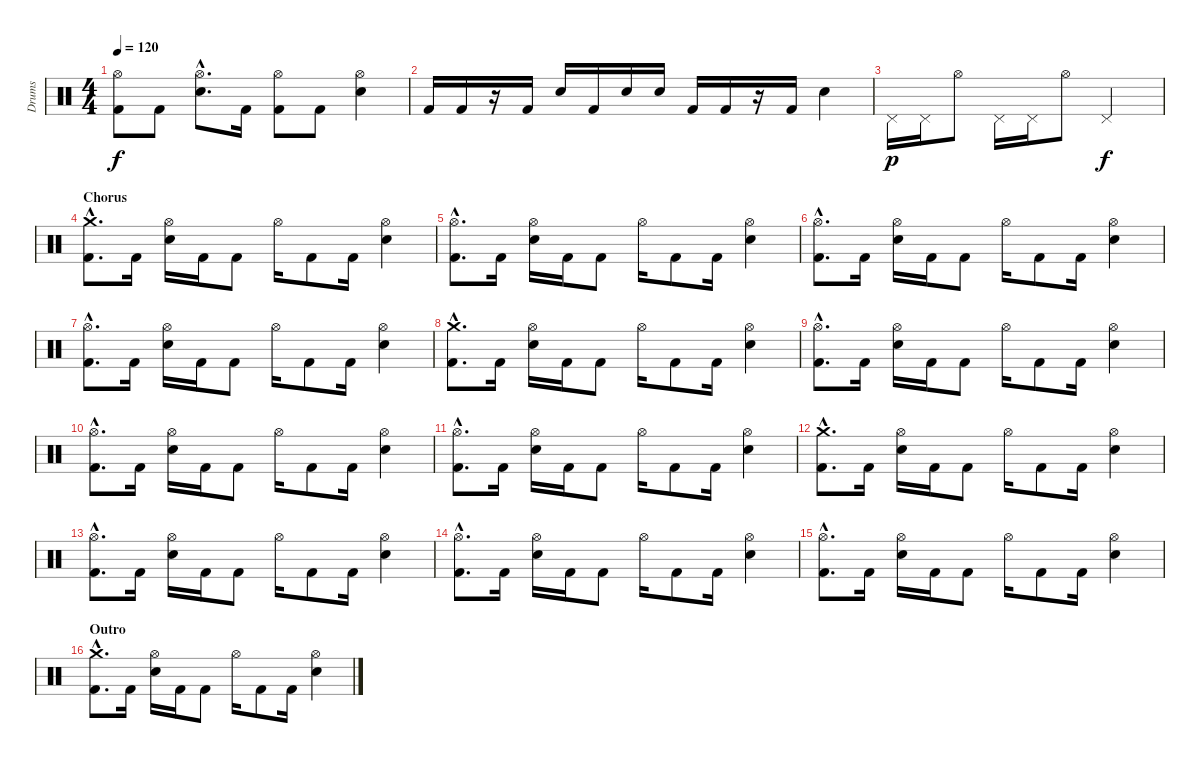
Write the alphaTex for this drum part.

\track ("Drums" "Drums") {instrument percussion}
\staff {score}
\articulation defaults
\ts (4 4)
\tempo 120
\clef neutral
\ks c
("Hi-Hat (open)" "Kick (hit) 2").8{dy f} "Kick (hit) 2".8 ("Hi-Hat (open)"{hac} "Electric Snare (hit)"{hac}).8{d} "Kick (hit) 2".16 ("Hi-Hat (open)" "Kick (hit) 2").8 "Kick (hit) 2".8 ("Hi-Hat (open)" "Electric Snare (hit)").4 |
"Kick (hit) 2".16 "Kick (hit) 2".16 r.16 "Kick (hit) 2".16 "Electric Snare (hit)".16 "Kick (hit) 2".16 "Electric Snare (hit)".16 "Electric Snare (hit)".16 "Kick (hit) 2".16 "Kick (hit) 2".16 r.16 "Kick (hit) 2".16 "Electric Snare (hit)".4 |
"Pedal Hi-Hat (hit)".16{dy p} "Pedal Hi-Hat (hit)".16 "Hi-Hat (open)".8 "Pedal Hi-Hat (hit)".16 "Pedal Hi-Hat (hit)".16 "Hi-Hat (open)".8 "Pedal Hi-Hat (hit)".2{dy f} |
\section ("" "Chorus")
("Crash medium (hit)"{hac} "Kick (hit) 2"{hac}).8{d} "Kick (hit) 2".16 ("Hi-Hat (open)" "Electric Snare (hit)").16 "Kick (hit) 2".16 "Kick (hit) 2".8 "Hi-Hat (open)".16 "Kick (hit) 2".8 "Kick (hit) 2".16 ("Hi-Hat (open)" "Electric Snare (hit)").4 |
("Hi-Hat (open)"{hac} "Kick (hit) 2"{hac}).8{d} "Kick (hit) 2".16 ("Hi-Hat (open)" "Electric Snare (hit)").16 "Kick (hit) 2".16 "Kick (hit) 2".8 "Hi-Hat (open)".16 "Kick (hit) 2".8 "Kick (hit) 2".16 ("Hi-Hat (open)" "Electric Snare (hit)").4 |
("Hi-Hat (open)"{hac} "Kick (hit) 2"{hac}).8{d} "Kick (hit) 2".16 ("Hi-Hat (open)" "Electric Snare (hit)").16 "Kick (hit) 2".16 "Kick (hit) 2".8 "Hi-Hat (open)".16 "Kick (hit) 2".8 "Kick (hit) 2".16 ("Hi-Hat (open)" "Electric Snare (hit)").4 |
("Hi-Hat (open)"{hac} "Kick (hit) 2"{hac}).8{d} "Kick (hit) 2".16 ("Hi-Hat (open)" "Electric Snare (hit)").16 "Kick (hit) 2".16 "Kick (hit) 2".8 "Hi-Hat (open)".16 "Kick (hit) 2".8 "Kick (hit) 2".16 ("Hi-Hat (open)" "Electric Snare (hit)").4 |
("Crash medium (hit)"{hac} "Kick (hit) 2"{hac}).8{d} "Kick (hit) 2".16 ("Hi-Hat (open)" "Electric Snare (hit)").16 "Kick (hit) 2".16 "Kick (hit) 2".8 "Hi-Hat (open)".16 "Kick (hit) 2".8 "Kick (hit) 2".16 ("Hi-Hat (open)" "Electric Snare (hit)").4 |
("Hi-Hat (open)"{hac} "Kick (hit) 2"{hac}).8{d} "Kick (hit) 2".16 ("Hi-Hat (open)" "Electric Snare (hit)").16 "Kick (hit) 2".16 "Kick (hit) 2".8 "Hi-Hat (open)".16 "Kick (hit) 2".8 "Kick (hit) 2".16 ("Hi-Hat (open)" "Electric Snare (hit)").4 |
("Hi-Hat (open)"{hac} "Kick (hit) 2"{hac}).8{d} "Kick (hit) 2".16 ("Hi-Hat (open)" "Electric Snare (hit)").16 "Kick (hit) 2".16 "Kick (hit) 2".8 "Hi-Hat (open)".16 "Kick (hit) 2".8 "Kick (hit) 2".16 ("Hi-Hat (open)" "Electric Snare (hit)").4 |
("Hi-Hat (open)"{hac} "Kick (hit) 2"{hac}).8{d} "Kick (hit) 2".16 ("Hi-Hat (open)" "Electric Snare (hit)").16 "Kick (hit) 2".16 "Kick (hit) 2".8 "Hi-Hat (open)".16 "Kick (hit) 2".8 "Kick (hit) 2".16 ("Hi-Hat (open)" "Electric Snare (hit)").4 |
("Crash medium (hit)"{hac} "Kick (hit) 2"{hac}).8{d} "Kick (hit) 2".16 ("Hi-Hat (open)" "Electric Snare (hit)").16 "Kick (hit) 2".16 "Kick (hit) 2".8 "Hi-Hat (open)".16 "Kick (hit) 2".8 "Kick (hit) 2".16 ("Hi-Hat (open)" "Electric Snare (hit)").4 |
("Hi-Hat (open)"{hac} "Kick (hit) 2"{hac}).8{d} "Kick (hit) 2".16 ("Hi-Hat (open)" "Electric Snare (hit)").16 "Kick (hit) 2".16 "Kick (hit) 2".8 "Hi-Hat (open)".16 "Kick (hit) 2".8 "Kick (hit) 2".16 ("Hi-Hat (open)" "Electric Snare (hit)").4 |
("Hi-Hat (open)"{hac} "Kick (hit) 2"{hac}).8{d} "Kick (hit) 2".16 ("Hi-Hat (open)" "Electric Snare (hit)").16 "Kick (hit) 2".16 "Kick (hit) 2".8 "Hi-Hat (open)".16 "Kick (hit) 2".8 "Kick (hit) 2".16 ("Hi-Hat (open)" "Electric Snare (hit)").4 |
("Hi-Hat (open)"{hac} "Kick (hit) 2"{hac}).8{d} "Kick (hit) 2".16 ("Hi-Hat (open)" "Electric Snare (hit)").16 "Kick (hit) 2".16 "Kick (hit) 2".8 "Hi-Hat (open)".16 "Kick (hit) 2".8 "Kick (hit) 2".16 ("Hi-Hat (open)" "Electric Snare (hit)").4 |
\section ("" "Outro")
("Crash medium (hit)"{hac} "Kick (hit) 2"{hac}).8{d} "Kick (hit) 2".16 ("Hi-Hat (open)" "Electric Snare (hit)").16 "Kick (hit) 2".16 "Kick (hit) 2".8 "Hi-Hat (open)".16 "Kick (hit) 2".8 "Kick (hit) 2".16 ("Hi-Hat (open)" "Electric Snare (hit)").4
